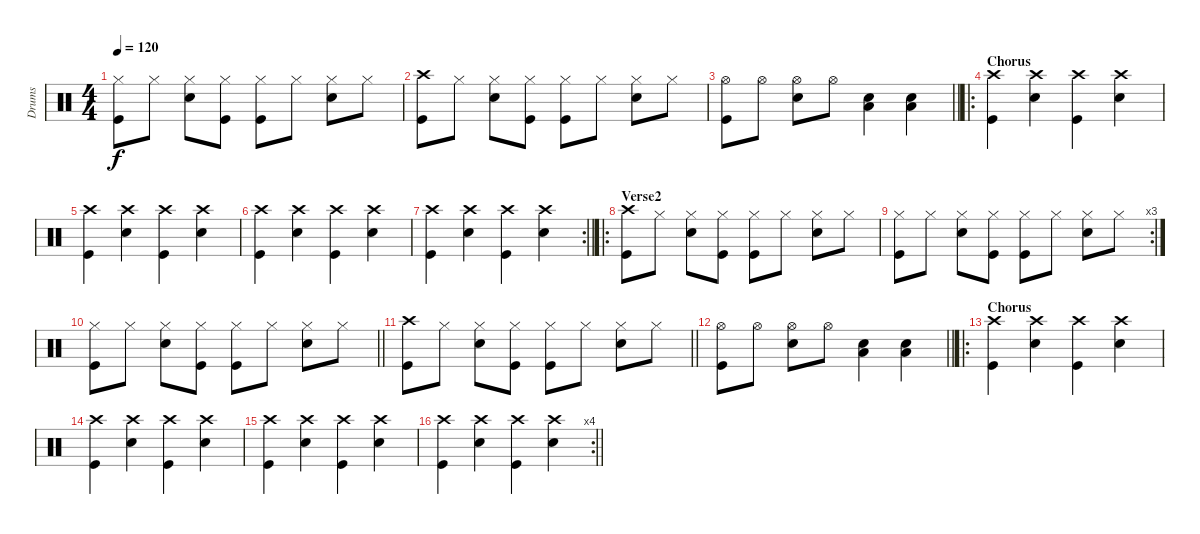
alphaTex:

\track ("Drums" "Drums") {instrument percussion}
\staff {score}
\articulation defaults
\ts (4 4)
\tempo 120
\clef neutral
\ks c
("Hi-Hat (closed)" "Kick (hit)").8{dy f} "Hi-Hat (closed)".8 ("Snare (hit) 2" "Hi-Hat (closed)").8 ("Hi-Hat (closed)" "Kick (hit)").8 ("Hi-Hat (closed)" "Kick (hit)").8 "Hi-Hat (closed)".8 ("Snare (hit) 2" "Hi-Hat (closed)").8 "Hi-Hat (closed)".8 |
("Crash high (hit)" "Kick (hit)").8 "Hi-Hat (closed)".8 ("Snare (hit) 2" "Hi-Hat (closed)").8 ("Hi-Hat (closed)" "Kick (hit)").8 ("Hi-Hat (closed)" "Kick (hit)").8 "Hi-Hat (closed)".8 ("Snare (hit) 2" "Hi-Hat (closed)").8 "Hi-Hat (closed)".8 |
\barLineRight lightlight
("Hi-Hat (open)" "Kick (hit)").8 "Hi-Hat (open)".8 ("Snare (hit) 2" "Hi-Hat (open)").8 "Hi-Hat (open)".8 ("Snare (hit) 2" "Low Floor Tom (hit)").4 ("Snare (hit) 2" "Low Floor Tom (hit)").4 |
\ro
\section ("" "Chorus")
("Crash high (hit)" "Kick (hit)").4 ("Crash high (hit)" "Snare (hit) 2").4 ("Crash high (hit)" "Kick (hit)").4 ("Crash high (hit)" "Snare (hit) 2").4 |
("Crash high (hit)" "Kick (hit)").4 ("Crash high (hit)" "Snare (hit) 2").4 ("Crash high (hit)" "Kick (hit)").4 ("Crash high (hit)" "Snare (hit) 2").4 |
("Crash high (hit)" "Kick (hit)").4 ("Crash high (hit)" "Snare (hit) 2").4 ("Crash high (hit)" "Kick (hit)").4 ("Crash high (hit)" "Snare (hit) 2").4 |
\rc 2
\barLineRight lightlight
("Crash high (hit)" "Kick (hit)").4 ("Crash high (hit)" "Snare (hit) 2").4 ("Crash high (hit)" "Kick (hit)").4 ("Crash high (hit)" "Snare (hit) 2").4 |
\ro
\section ("" "Verse2")
("Crash high (hit)" "Kick (hit)").8 "Hi-Hat (closed)".8 ("Snare (hit) 2" "Hi-Hat (closed)").8 ("Hi-Hat (closed)" "Kick (hit)").8 ("Hi-Hat (closed)" "Kick (hit)").8 "Hi-Hat (closed)".8 ("Snare (hit) 2" "Hi-Hat (closed)").8 "Hi-Hat (closed)".8 |
\rc 3
("Hi-Hat (closed)" "Kick (hit)").8 "Hi-Hat (closed)".8 ("Snare (hit) 2" "Hi-Hat (closed)").8 ("Hi-Hat (closed)" "Kick (hit)").8 ("Hi-Hat (closed)" "Kick (hit)").8 "Hi-Hat (closed)".8 ("Snare (hit) 2" "Hi-Hat (closed)").8 "Hi-Hat (closed)".8 |
\barLineRight lightlight
("Hi-Hat (closed)" "Kick (hit)").8 "Hi-Hat (closed)".8 ("Snare (hit) 2" "Hi-Hat (closed)").8 ("Hi-Hat (closed)" "Kick (hit)").8 ("Hi-Hat (closed)" "Kick (hit)").8 "Hi-Hat (closed)".8 ("Snare (hit) 2" "Hi-Hat (closed)").8 "Hi-Hat (closed)".8 |
\barLineRight lightlight
("Crash high (hit)" "Kick (hit)").8 "Hi-Hat (closed)".8 ("Snare (hit) 2" "Hi-Hat (closed)").8 ("Hi-Hat (closed)" "Kick (hit)").8 ("Hi-Hat (closed)" "Kick (hit)").8 "Hi-Hat (closed)".8 ("Snare (hit) 2" "Hi-Hat (closed)").8 "Hi-Hat (closed)".8 |
\barLineRight lightlight
("Hi-Hat (open)" "Kick (hit)").8 "Hi-Hat (open)".8 ("Snare (hit) 2" "Hi-Hat (open)").8 "Hi-Hat (open)".8 ("Snare (hit) 2" "Low Floor Tom (hit)").4 ("Snare (hit) 2" "Low Floor Tom (hit)").4 |
\ro
\section ("" "Chorus")
("Crash high (hit)" "Kick (hit)").4 ("Crash high (hit)" "Snare (hit) 2").4 ("Crash high (hit)" "Kick (hit)").4 ("Crash high (hit)" "Snare (hit) 2").4 |
("Crash high (hit)" "Kick (hit)").4 ("Crash high (hit)" "Snare (hit) 2").4 ("Crash high (hit)" "Kick (hit)").4 ("Crash high (hit)" "Snare (hit) 2").4 |
("Crash high (hit)" "Kick (hit)").4 ("Crash high (hit)" "Snare (hit) 2").4 ("Crash high (hit)" "Kick (hit)").4 ("Crash high (hit)" "Snare (hit) 2").4 |
\rc 4
\barLineRight lightlight
("Crash high (hit)" "Kick (hit)").4 ("Crash high (hit)" "Snare (hit) 2").4 ("Crash high (hit)" "Kick (hit)").4 ("Crash high (hit)" "Snare (hit) 2").4
